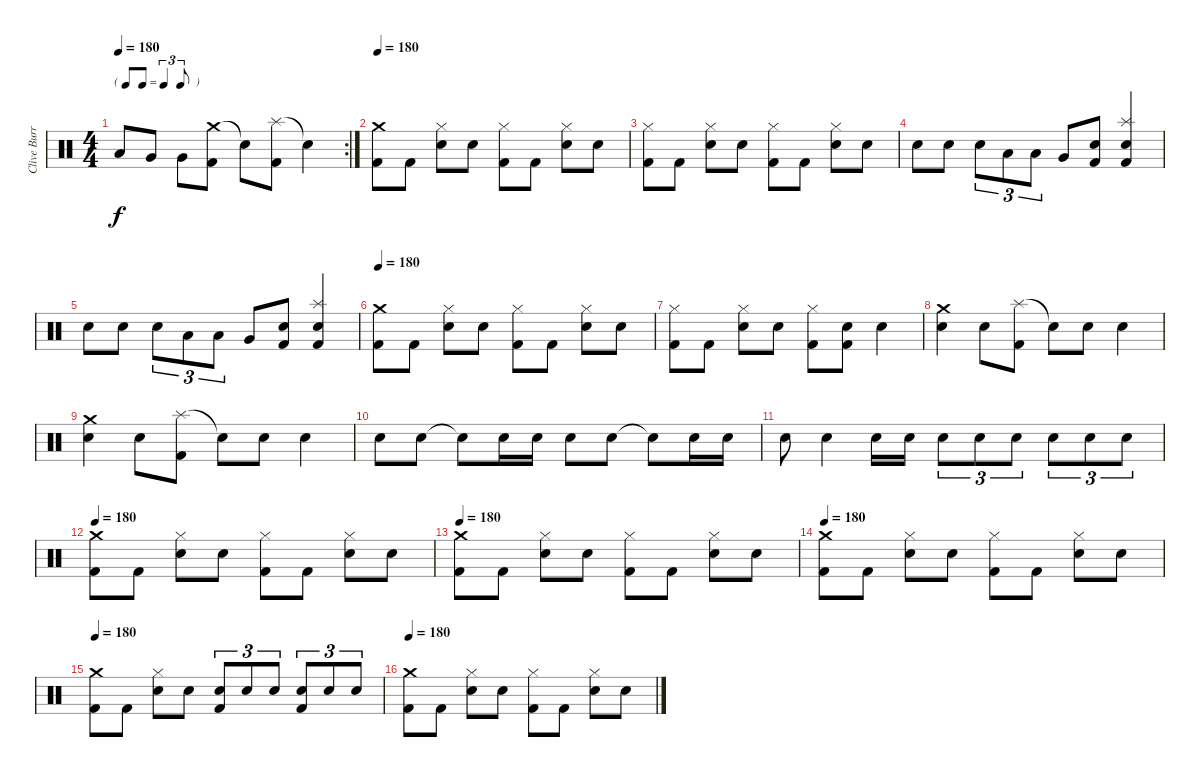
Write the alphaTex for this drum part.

\track ("Clive Burr" "Clive Burr") {instrument percussion}
\staff {score}
\articulation defaults
\rc 2
\ts (4 4)
\tf triplet8th
\tempo 180
\clef neutral
\ks c "Low Tom (hit)".8{dy f} "Very Low Tom (hit)".8 "Very Low Tom (hit)".8
("Crash medium (hit)" "Kick (hit) 2").8 "Snare (hit)"{t}.8 ("Splash (hit)" "Kick (hit) 2").8 "Snare (hit)"{t}.4 |
\tempo 180
("Crash medium (hit)" "Kick (hit) 2").8 "Kick (hit) 2".8 ("Hi-Hat (closed)" "Electric Snare (hit)").8 "Electric Snare (hit)".8 ("Hi-Hat (closed)" "Kick (hit) 2").8 "Kick (hit) 2".8 ("Hi-Hat (closed)" "Electric Snare (hit)").8 "Electric Snare (hit)".8 |
("Hi-Hat (closed)" "Kick (hit) 2").8 "Kick (hit) 2".8 ("Hi-Hat (closed)" "Electric Snare (hit)").8 "Electric Snare (hit)".8 ("Hi-Hat (closed)" "Kick (hit) 2").8 "Kick (hit) 2".8 ("Hi-Hat (closed)" "Electric Snare (hit)").8 "Electric Snare (hit)".8 |
"Electric Snare (hit)".8 "Electric Snare (hit)".8 "Electric Snare (hit)".8{tu (3 2)} "Low Tom (hit)".8{tu (3 2)} "Low Tom (hit)".8{tu (3 2)} "Very Low Tom (hit)".8 ("Electric Snare (hit)" "Kick (hit) 2").8 ("Splash (hit)" "Electric Snare (hit)" "Kick (hit) 2").4 |
"Electric Snare (hit)".8 "Electric Snare (hit)".8 "Electric Snare (hit)".8{tu (3 2)} "Low Tom (hit)".8{tu (3 2)} "Low Tom (hit)".8{tu (3 2)} "Very Low Tom (hit)".8 ("Electric Snare (hit)" "Kick (hit) 2").8 ("Splash (hit)" "Electric Snare (hit)" "Kick (hit) 2").4 |
\tempo 180
("Crash medium (hit)" "Kick (hit) 2").8 "Kick (hit) 2".8 ("Hi-Hat (closed)" "Electric Snare (hit)").8 "Electric Snare (hit)".8 ("Hi-Hat (closed)" "Kick (hit) 2").8 "Kick (hit) 2".8 ("Hi-Hat (closed)" "Electric Snare (hit)").8 "Electric Snare (hit)".8 |
("Hi-Hat (closed)" "Kick (hit) 2").8 "Kick (hit) 2".8 ("Hi-Hat (closed)" "Electric Snare (hit)").8 "Electric Snare (hit)".8 ("Hi-Hat (closed)" "Kick (hit) 2").8 ("Electric Snare (hit)" "Kick (hit) 2").8 "Electric Snare (hit)".4 |
("Crash medium (hit)" "Electric Snare (hit)").4 "Electric Snare (hit)".8 ("Splash (hit)" "Kick (hit) 2").8 "Snare (hit)"{t}.8 "Electric Snare (hit)".8 "Electric Snare (hit)".4 |
("Crash medium (hit)" "Electric Snare (hit)").4 "Electric Snare (hit)".8 ("Splash (hit)" "Kick (hit) 2").8 "Snare (hit)"{t}.8 "Electric Snare (hit)".8 "Electric Snare (hit)".4 |
"Electric Snare (hit)".8 "Electric Snare (hit)".8 "Snare (hit)"{t}.8 "Electric Snare (hit)".16 "Electric Snare (hit)".16 "Electric Snare (hit)".8 "Electric Snare (hit)".8 "Snare (hit)"{t}.8 "Electric Snare (hit)".16 "Electric Snare (hit)".16 |
"Electric Snare (hit)".8 "Electric Snare (hit)".4 "Electric Snare (hit)".16 "Electric Snare (hit)".16 "Electric Snare (hit)".8{tu (3 2)} "Electric Snare (hit)".8{tu (3 2)} "Electric Snare (hit)".8{tu (3 2)} "Electric Snare (hit)".8{tu (3 2)} "Electric Snare (hit)".8{tu (3 2)} "Electric Snare (hit)".8{tu (3 2)} |
\tempo 180
("Crash medium (hit)" "Kick (hit) 2").8 "Kick (hit) 2".8 ("Hi-Hat (closed)" "Electric Snare (hit)").8 "Electric Snare (hit)".8 ("Hi-Hat (closed)" "Kick (hit) 2").8 "Kick (hit) 2".8 ("Hi-Hat (closed)" "Electric Snare (hit)").8 "Electric Snare (hit)".8 |
\tempo 180
("Crash medium (hit)" "Kick (hit) 2").8 "Kick (hit) 2".8 ("Hi-Hat (closed)" "Electric Snare (hit)").8 "Electric Snare (hit)".8 ("Hi-Hat (closed)" "Kick (hit) 2").8 "Kick (hit) 2".8 ("Hi-Hat (closed)" "Electric Snare (hit)").8 "Electric Snare (hit)".8 |
\tempo 180
("Crash medium (hit)" "Kick (hit) 2").8 "Kick (hit) 2".8 ("Hi-Hat (closed)" "Electric Snare (hit)").8 "Electric Snare (hit)".8 ("Hi-Hat (closed)" "Kick (hit) 2").8 "Kick (hit) 2".8 ("Hi-Hat (closed)" "Electric Snare (hit)").8 "Electric Snare (hit)".8 |
\tempo 180
("Crash medium (hit)" "Kick (hit) 2").8 "Kick (hit) 2".8 ("Hi-Hat (closed)" "Electric Snare (hit)").8 "Electric Snare (hit)".8 ("Electric Snare (hit)" "Kick (hit) 2").8{tu (3 2)} "Electric Snare (hit)".8{tu (3 2)} "Electric Snare (hit)".8{tu (3 2)} ("Electric Snare (hit)" "Kick (hit) 2").8{tu (3 2)} "Electric Snare (hit)".8{tu (3 2)} "Electric Snare (hit)".8{tu (3 2)} |
\tempo 180
("Crash medium (hit)" "Kick (hit) 2").8 "Kick (hit) 2".8 ("Hi-Hat (closed)" "Electric Snare (hit)").8 "Electric Snare (hit)".8 ("Hi-Hat (closed)" "Kick (hit) 2").8 "Kick (hit) 2".8 ("Hi-Hat (closed)" "Electric Snare (hit)").8 "Electric Snare (hit)".8
